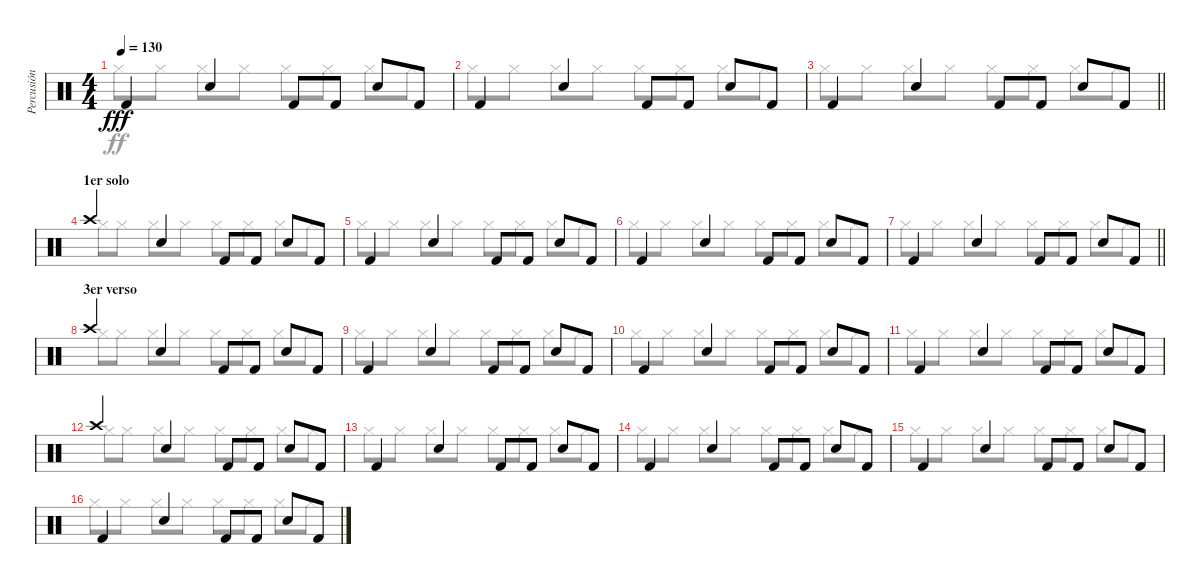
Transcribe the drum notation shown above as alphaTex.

\track ("Percusión" "Percusión") {instrument percussion}
\staff
\articulation defaults
\voice
\ts (4 4)
\tempo 130
\clef neutral
\ks c "Kick (hit) 2".4{dy fff} "Electric Snare (hit)".4 "Kick (hit) 2".8 "Kick (hit) 2".8 "Electric Snare (hit)".8 "Kick (hit) 2".8
|
"Kick (hit) 2".4 "Electric Snare (hit)".4 "Kick (hit) 2".8 "Kick (hit) 2".8 "Electric Snare (hit)".8 "Kick (hit) 2".8 |
\barLineRight lightlight "Kick (hit) 2".4 "Electric Snare (hit)".4 "Kick (hit) 2".8 "Kick (hit) 2".8 "Electric Snare (hit)".8 "Kick (hit) 2".8
|
\section ("" "1er solo")
"Crash high (hit)".4 "Electric Snare (hit)".4 "Kick (hit) 2".8 "Kick (hit) 2".8 "Electric Snare (hit)".8 "Kick (hit) 2".8 |
"Kick (hit) 2".4 "Electric Snare (hit)".4 "Kick (hit) 2".8 "Kick (hit) 2".8 "Electric Snare (hit)".8 "Kick (hit) 2".8 |
"Kick (hit) 2".4 "Electric Snare (hit)".4 "Kick (hit) 2".8 "Kick (hit) 2".8 "Electric Snare (hit)".8 "Kick (hit) 2".8 |
\barLineRight lightlight "Kick (hit) 2".4 "Electric Snare (hit)".4 "Kick (hit) 2".8 "Kick (hit) 2".8 "Electric Snare (hit)".8 "Kick (hit) 2".8
|
\section ("" "3er verso")
"Crash high (hit)".4 "Electric Snare (hit)".4 "Kick (hit) 2".8 "Kick (hit) 2".8 "Electric Snare (hit)".8 "Kick (hit) 2".8 |
"Kick (hit) 2".4 "Electric Snare (hit)".4 "Kick (hit) 2".8 "Kick (hit) 2".8 "Electric Snare (hit)".8 "Kick (hit) 2".8 |
"Kick (hit) 2".4 "Electric Snare (hit)".4 "Kick (hit) 2".8 "Kick (hit) 2".8 "Electric Snare (hit)".8 "Kick (hit) 2".8 |
"Kick (hit) 2".4 "Electric Snare (hit)".4 "Kick (hit) 2".8 "Kick (hit) 2".8 "Electric Snare (hit)".8 "Kick (hit) 2".8 |
"Crash high (hit)".4 "Electric Snare (hit)".4 "Kick (hit) 2".8 "Kick (hit) 2".8 "Electric Snare (hit)".8 "Kick (hit) 2".8 |
"Kick (hit) 2".4 "Electric Snare (hit)".4 "Kick (hit) 2".8 "Kick (hit) 2".8 "Electric Snare (hit)".8 "Kick (hit) 2".8 |
"Kick (hit) 2".4 "Electric Snare (hit)".4 "Kick (hit) 2".8 "Kick (hit) 2".8 "Electric Snare (hit)".8 "Kick (hit) 2".8 |
"Kick (hit) 2".4 "Electric Snare (hit)".4 "Kick (hit) 2".8 "Kick (hit) 2".8 "Electric Snare (hit)".8 "Kick (hit) 2".8 |
"Kick (hit) 2".4 "Electric Snare (hit)".4 "Kick (hit) 2".8 "Kick (hit) 2".8 "Electric Snare (hit)".8 "Kick (hit) 2".8
\voice
\clef neutral
\ottava regular
\simile none
\ks c "Hi-Hat (closed)".8{dy ff} "Hi-Hat (closed)".8 "Hi-Hat (closed)".8 "Hi-Hat (closed)".8 "Hi-Hat (closed)".8 "Hi-Hat (closed)".8 "Hi-Hat (closed)".8 "Hi-Hat (closed)".8
|
"Hi-Hat (closed)".8 "Hi-Hat (closed)".8 "Hi-Hat (closed)".8 "Hi-Hat (closed)".8 "Hi-Hat (closed)".8 "Hi-Hat (closed)".8 "Hi-Hat (closed)".8 "Hi-Hat (closed)".8 |
\barLineRight lightlight "Hi-Hat (closed)".8 "Hi-Hat (closed)".8 "Hi-Hat (closed)".8 "Hi-Hat (closed)".8 "Hi-Hat (closed)".8 "Hi-Hat (closed)".8 "Hi-Hat (closed)".8 "Hi-Hat (closed)".8
|
"Hi-Hat (closed)".8 "Hi-Hat (closed)".8 "Hi-Hat (closed)".8 "Hi-Hat (closed)".8 "Hi-Hat (closed)".8 "Hi-Hat (closed)".8 "Hi-Hat (closed)".8 "Hi-Hat (closed)".8 |
"Hi-Hat (closed)".8 "Hi-Hat (closed)".8 "Hi-Hat (closed)".8 "Hi-Hat (closed)".8 "Hi-Hat (closed)".8 "Hi-Hat (closed)".8 "Hi-Hat (closed)".8 "Hi-Hat (closed)".8 |
"Hi-Hat (closed)".8 "Hi-Hat (closed)".8 "Hi-Hat (closed)".8 "Hi-Hat (closed)".8 "Hi-Hat (closed)".8 "Hi-Hat (closed)".8 "Hi-Hat (closed)".8 "Hi-Hat (closed)".8 |
\barLineRight lightlight "Hi-Hat (closed)".8 "Hi-Hat (closed)".8 "Hi-Hat (closed)".8 "Hi-Hat (closed)".8 "Hi-Hat (closed)".8 "Hi-Hat (closed)".8 "Hi-Hat (closed)".8 "Hi-Hat (closed)".8
|
"Hi-Hat (closed)".8 "Hi-Hat (closed)".8 "Hi-Hat (closed)".8 "Hi-Hat (closed)".8 "Hi-Hat (closed)".8 "Hi-Hat (closed)".8 "Hi-Hat (closed)".8 "Hi-Hat (closed)".8 |
"Hi-Hat (closed)".8 "Hi-Hat (closed)".8 "Hi-Hat (closed)".8 "Hi-Hat (closed)".8 "Hi-Hat (closed)".8 "Hi-Hat (closed)".8 "Hi-Hat (closed)".8 "Hi-Hat (closed)".8 |
"Hi-Hat (closed)".8 "Hi-Hat (closed)".8 "Hi-Hat (closed)".8 "Hi-Hat (closed)".8 "Hi-Hat (closed)".8 "Hi-Hat (closed)".8 "Hi-Hat (closed)".8 "Hi-Hat (closed)".8 |
"Hi-Hat (closed)".8 "Hi-Hat (closed)".8 "Hi-Hat (closed)".8 "Hi-Hat (closed)".8 "Hi-Hat (closed)".8 "Hi-Hat (closed)".8 "Hi-Hat (closed)".8 "Hi-Hat (closed)".8 |
"Hi-Hat (closed)".8 "Hi-Hat (closed)".8 "Hi-Hat (closed)".8 "Hi-Hat (closed)".8 "Hi-Hat (closed)".8 "Hi-Hat (closed)".8 "Hi-Hat (closed)".8 "Hi-Hat (closed)".8 |
"Hi-Hat (closed)".8 "Hi-Hat (closed)".8 "Hi-Hat (closed)".8 "Hi-Hat (closed)".8 "Hi-Hat (closed)".8 "Hi-Hat (closed)".8 "Hi-Hat (closed)".8 "Hi-Hat (closed)".8 |
"Hi-Hat (closed)".8 "Hi-Hat (closed)".8 "Hi-Hat (closed)".8 "Hi-Hat (closed)".8 "Hi-Hat (closed)".8 "Hi-Hat (closed)".8 "Hi-Hat (closed)".8 "Hi-Hat (closed)".8 |
"Hi-Hat (closed)".8 "Hi-Hat (closed)".8 "Hi-Hat (closed)".8 "Hi-Hat (closed)".8 "Hi-Hat (closed)".8 "Hi-Hat (closed)".8 "Hi-Hat (closed)".8 "Hi-Hat (closed)".8 |
"Hi-Hat (closed)".8 "Hi-Hat (closed)".8 "Hi-Hat (closed)".8 "Hi-Hat (closed)".8 "Hi-Hat (closed)".8 "Hi-Hat (closed)".8 "Hi-Hat (closed)".8 "Hi-Hat (closed)".8
